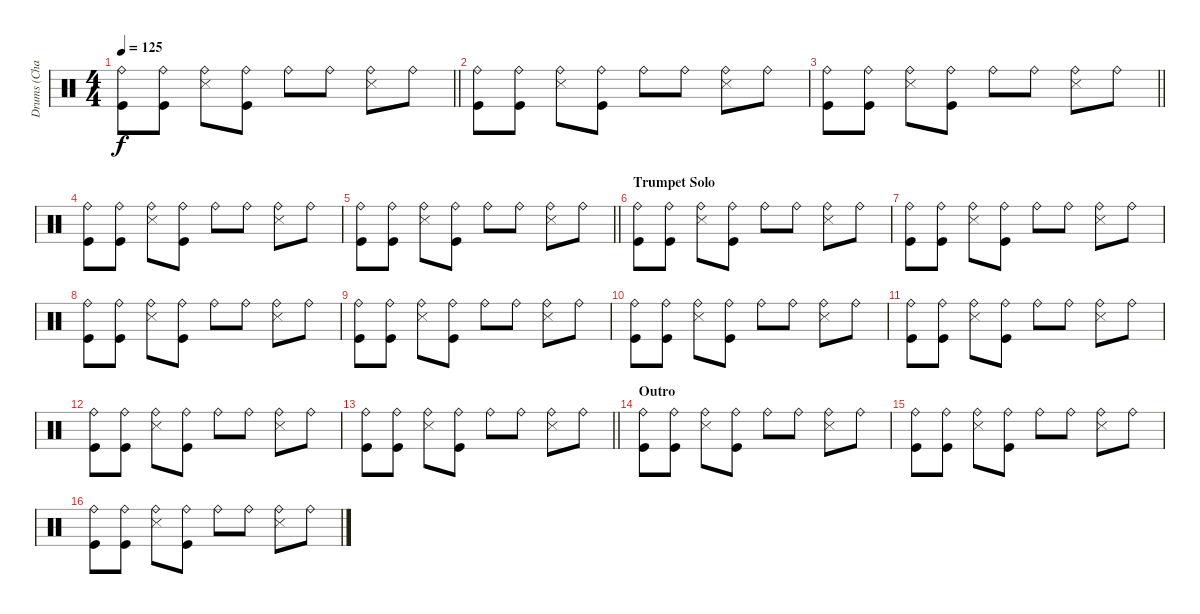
\track ("Drums (Chad Smith)" "Drums (Cha") {instrument percussion}
\staff {score}
\articulation defaults
\ts (4 4)
\tempo 125
\clef neutral
\barLineRight lightlight
\ks c
("Ride (bell)" "Kick (hit)").8{dy f} ("Ride (bell)" "Kick (hit)").8 ("Ride (bell)" "Snare (side stick) 3").8 ("Ride (bell)" "Kick (hit)").8 "Ride (bell)".8 "Ride (bell)".8 ("Ride (bell)" "Snare (side stick) 3").8 "Ride (bell)".8 |
("Ride (bell)" "Kick (hit)").8 ("Ride (bell)" "Kick (hit)").8 ("Ride (bell)" "Snare (side stick) 3").8 ("Ride (bell)" "Kick (hit)").8 "Ride (bell)".8 "Ride (bell)".8 ("Ride (bell)" "Snare (side stick) 3").8 "Ride (bell)".8 |
\barLineRight lightlight
("Ride (bell)" "Kick (hit)").8 ("Ride (bell)" "Kick (hit)").8 ("Ride (bell)" "Snare (side stick) 3").8 ("Ride (bell)" "Kick (hit)").8 "Ride (bell)".8 "Ride (bell)".8 ("Ride (bell)" "Snare (side stick) 3").8 "Ride (bell)".8 |
("Ride (bell)" "Kick (hit)").8 ("Ride (bell)" "Kick (hit)").8 ("Ride (bell)" "Snare (side stick) 3").8 ("Ride (bell)" "Kick (hit)").8 "Ride (bell)".8 "Ride (bell)".8 ("Ride (bell)" "Snare (side stick) 3").8 "Ride (bell)".8 |
\barLineRight lightlight
("Ride (bell)" "Kick (hit)").8 ("Ride (bell)" "Kick (hit)").8 ("Ride (bell)" "Snare (side stick) 3").8 ("Ride (bell)" "Kick (hit)").8 "Ride (bell)".8 "Ride (bell)".8 ("Ride (bell)" "Snare (side stick) 3").8 "Ride (bell)".8 |
\section ("" "Trumpet Solo")
("Ride (bell)" "Kick (hit)").8 ("Ride (bell)" "Kick (hit)").8 ("Ride (bell)" "Snare (side stick) 3").8 ("Ride (bell)" "Kick (hit)").8 "Ride (bell)".8 "Ride (bell)".8 ("Ride (bell)" "Snare (side stick) 3").8 "Ride (bell)".8 |
("Ride (bell)" "Kick (hit)").8 ("Ride (bell)" "Kick (hit)").8 ("Ride (bell)" "Snare (side stick) 3").8 ("Ride (bell)" "Kick (hit)").8 "Ride (bell)".8 "Ride (bell)".8 ("Ride (bell)" "Snare (side stick) 3").8 "Ride (bell)".8 |
("Ride (bell)" "Kick (hit)").8 ("Ride (bell)" "Kick (hit)").8 ("Ride (bell)" "Snare (side stick) 3").8 ("Ride (bell)" "Kick (hit)").8 "Ride (bell)".8 "Ride (bell)".8 ("Ride (bell)" "Snare (side stick) 3").8 "Ride (bell)".8 |
("Ride (bell)" "Kick (hit)").8 ("Ride (bell)" "Kick (hit)").8 ("Ride (bell)" "Snare (side stick) 3").8 ("Ride (bell)" "Kick (hit)").8 "Ride (bell)".8 "Ride (bell)".8 ("Ride (bell)" "Snare (side stick) 3").8 "Ride (bell)".8 |
("Ride (bell)" "Kick (hit)").8 ("Ride (bell)" "Kick (hit)").8 ("Ride (bell)" "Snare (side stick) 3").8 ("Ride (bell)" "Kick (hit)").8 "Ride (bell)".8 "Ride (bell)".8 ("Ride (bell)" "Snare (side stick) 3").8 "Ride (bell)".8 |
("Ride (bell)" "Kick (hit)").8 ("Ride (bell)" "Kick (hit)").8 ("Ride (bell)" "Snare (side stick) 3").8 ("Ride (bell)" "Kick (hit)").8 "Ride (bell)".8 "Ride (bell)".8 ("Ride (bell)" "Snare (side stick) 3").8 "Ride (bell)".8 |
("Ride (bell)" "Kick (hit)").8 ("Ride (bell)" "Kick (hit)").8 ("Ride (bell)" "Snare (side stick) 3").8 ("Ride (bell)" "Kick (hit)").8 "Ride (bell)".8 "Ride (bell)".8 ("Ride (bell)" "Snare (side stick) 3").8 "Ride (bell)".8 |
\barLineRight lightlight
("Ride (bell)" "Kick (hit)").8 ("Ride (bell)" "Kick (hit)").8 ("Ride (bell)" "Snare (side stick) 3").8 ("Ride (bell)" "Kick (hit)").8 "Ride (bell)".8 "Ride (bell)".8 ("Ride (bell)" "Snare (side stick) 3").8 "Ride (bell)".8 |
\section ("" "Outro")
("Ride (bell)" "Kick (hit)").8 ("Ride (bell)" "Kick (hit)").8 ("Ride (bell)" "Snare (side stick) 3").8 ("Ride (bell)" "Kick (hit)").8 "Ride (bell)".8 "Ride (bell)".8 ("Ride (bell)" "Snare (side stick) 3").8 "Ride (bell)".8 |
("Ride (bell)" "Kick (hit)").8 ("Ride (bell)" "Kick (hit)").8 ("Ride (bell)" "Snare (side stick) 3").8 ("Ride (bell)" "Kick (hit)").8 "Ride (bell)".8 "Ride (bell)".8 ("Ride (bell)" "Snare (side stick) 3").8 "Ride (bell)".8 |
("Ride (bell)" "Kick (hit)").8 ("Ride (bell)" "Kick (hit)").8 ("Ride (bell)" "Snare (side stick) 3").8 ("Ride (bell)" "Kick (hit)").8 "Ride (bell)".8 "Ride (bell)".8 ("Ride (bell)" "Snare (side stick) 3").8 "Ride (bell)".8
